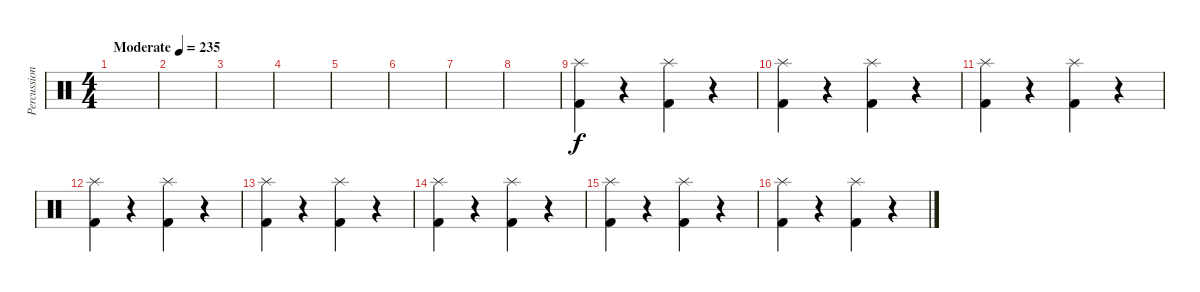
\track ("Percussion" "Percussion") {instrument percussion}
\staff {score}
\articulation defaults
\ts (4 4)
\tempo (235 "Moderate")
\clef neutral
\ks c
|
|
|
|
|
|
|
|
("Kick (hit) 2" "Splash (hit)").4 r.4 ("Kick (hit) 2" "Splash (hit)").4 r.4 |
("Kick (hit) 2" "Splash (hit)").4 r.4 ("Kick (hit) 2" "Splash (hit)").4 r.4 |
("Kick (hit) 2" "Splash (hit)").4 r.4 ("Kick (hit) 2" "Splash (hit)").4 r.4 |
("Kick (hit) 2" "Splash (hit)").4 r.4 ("Kick (hit) 2" "Splash (hit)").4 r.4 |
("Kick (hit) 2" "Splash (hit)").4 r.4 ("Kick (hit) 2" "Splash (hit)").4 r.4 |
("Kick (hit) 2" "Splash (hit)").4 r.4 ("Kick (hit) 2" "Splash (hit)").4 r.4 |
("Kick (hit) 2" "Splash (hit)").4 r.4 ("Kick (hit) 2" "Splash (hit)").4 r.4 |
("Kick (hit) 2" "Splash (hit)").4 r.4 ("Kick (hit) 2" "Splash (hit)").4 r.4
